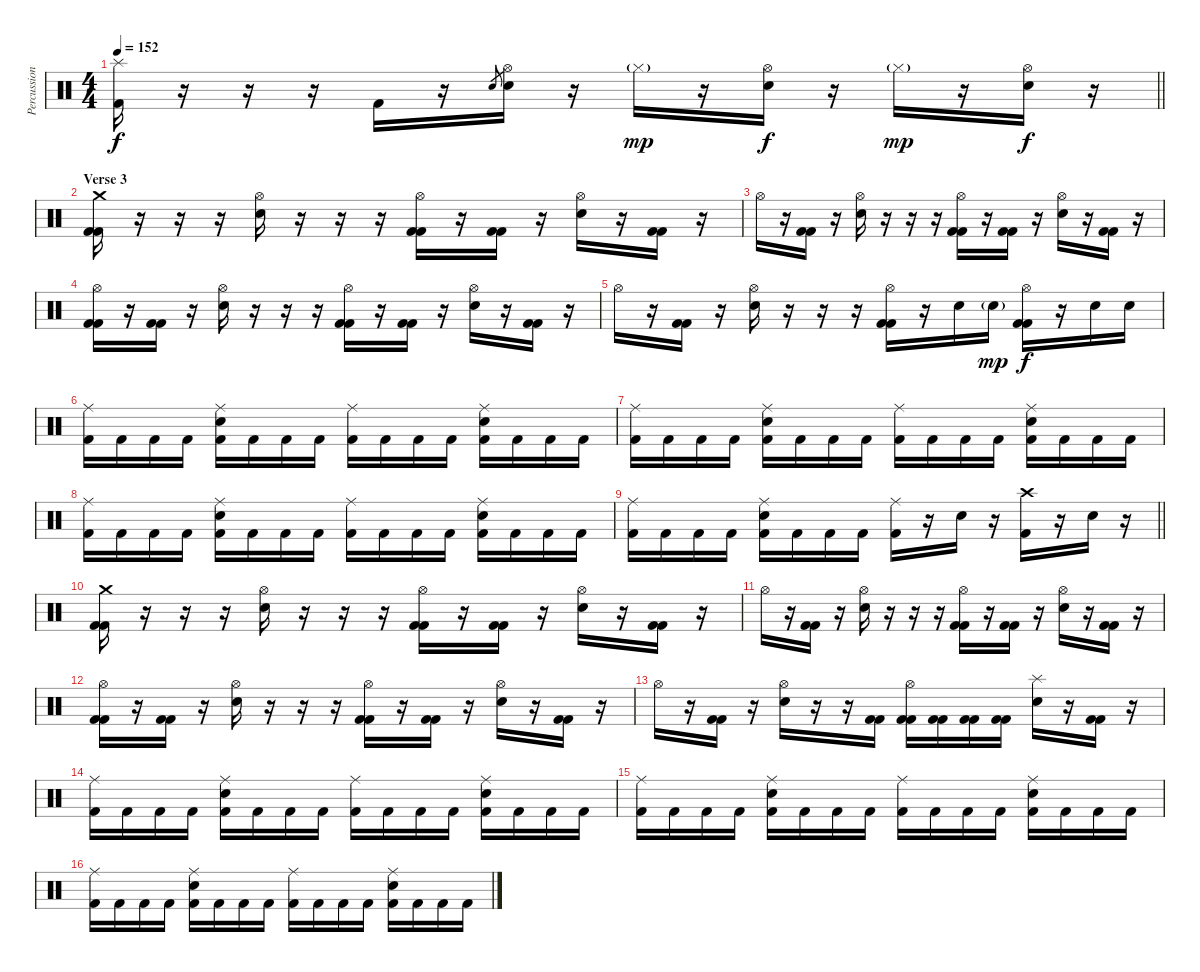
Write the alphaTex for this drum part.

\track ("Percussion" "Percussion") {instrument percussion}
\staff {score}
\articulation defaults
\ts (4 4)
\tempo 152
\clef neutral
\barLineRight lightlight
\ks c
("Splash (hit)" "Kick (hit) 2").16{dy f} r.16 r.16 r.16 "Kick (hit) 2".16 r.16 "Snare (hit) 2".8{gr} ("Hi-Hat (open)" "Snare (hit) 2").16 r.16 "Hi-Hat (closed)"{g}.16{dy mp} r.16 ("Hi-Hat (open)" "Snare (hit) 2").16{dy f} r.16 "Hi-Hat (closed)"{g}.16{dy mp} r.16 ("Hi-Hat (open)" "Snare (hit) 2").16{dy f} r.16 |
\section ("" "Verse 3")
("Crash medium (hit)" "Kick (hit) 2" "Kick (hit) 2").16 r.16 r.16 r.16 ("Hi-Hat (open)" "Snare (hit) 2").16 r.16 r.16 r.16 ("Hi-Hat (open)" "Kick (hit) 2" "Kick (hit) 2").16 r.16 ("Kick (hit) 2" "Kick (hit) 2").16 r.16 ("Hi-Hat (open)" "Snare (hit) 2").16 r.16 ("Kick (hit) 2" "Kick (hit) 2").16 r.16 |
"Hi-Hat (open)".16 r.16 ("Kick (hit) 2" "Kick (hit) 2").16 r.16 ("Hi-Hat (open)" "Snare (hit) 2").16 r.16 r.16 r.16 ("Hi-Hat (open)" "Kick (hit) 2" "Kick (hit) 2").16 r.16 ("Kick (hit) 2" "Kick (hit) 2").16 r.16 ("Hi-Hat (open)" "Snare (hit) 2").16 r.16 ("Kick (hit) 2" "Kick (hit) 2").16 r.16 |
("Hi-Hat (open)" "Kick (hit) 2" "Kick (hit) 2").16 r.16 ("Kick (hit) 2" "Kick (hit) 2").16 r.16 ("Hi-Hat (open)" "Snare (hit) 2").16 r.16 r.16 r.16 ("Hi-Hat (open)" "Kick (hit) 2" "Kick (hit) 2").16 r.16 ("Kick (hit) 2" "Kick (hit) 2").16 r.16 ("Hi-Hat (open)" "Snare (hit) 2").16 r.16 ("Kick (hit) 2" "Kick (hit) 2").16 r.16 |
"Hi-Hat (open)".16 r.16 ("Kick (hit) 2" "Kick (hit) 2").16 r.16 ("Hi-Hat (open)" "Snare (hit) 2").16 r.16 r.16 r.16 ("Hi-Hat (open)" "Kick (hit) 2" "Kick (hit) 2").16 r.16 "Snare (hit) 2".16 "Snare (hit) 2"{g}.16{dy mp} ("Hi-Hat (open)" "Kick (hit) 2" "Kick (hit) 2").16{dy f} r.16 "Snare (hit) 2".16 "Snare (hit) 2".16 |
("Ride (middle)" "Kick (hit) 2").16 "Kick (hit) 2".16 "Kick (hit) 2".16 "Kick (hit) 2".16 ("Ride (middle)" "Snare (hit) 2" "Kick (hit) 2").16 "Kick (hit) 2".16 "Kick (hit) 2".16 "Kick (hit) 2".16 ("Ride (middle)" "Kick (hit) 2").16 "Kick (hit) 2".16 "Kick (hit) 2".16 "Kick (hit) 2".16 ("Ride (middle)" "Snare (hit) 2" "Kick (hit) 2").16 "Kick (hit) 2".16 "Kick (hit) 2".16 "Kick (hit) 2".16 |
("Ride (middle)" "Kick (hit) 2").16 "Kick (hit) 2".16 "Kick (hit) 2".16 "Kick (hit) 2".16 ("Ride (middle)" "Snare (hit) 2" "Kick (hit) 2").16 "Kick (hit) 2".16 "Kick (hit) 2".16 "Kick (hit) 2".16 ("Ride (middle)" "Kick (hit) 2").16 "Kick (hit) 2".16 "Kick (hit) 2".16 "Kick (hit) 2".16 ("Ride (middle)" "Snare (hit) 2" "Kick (hit) 2").16 "Kick (hit) 2".16 "Kick (hit) 2".16 "Kick (hit) 2".16 |
("Ride (middle)" "Kick (hit) 2").16 "Kick (hit) 2".16 "Kick (hit) 2".16 "Kick (hit) 2".16 ("Ride (middle)" "Snare (hit) 2" "Kick (hit) 2").16 "Kick (hit) 2".16 "Kick (hit) 2".16 "Kick (hit) 2".16 ("Ride (middle)" "Kick (hit) 2").16 "Kick (hit) 2".16 "Kick (hit) 2".16 "Kick (hit) 2".16 ("Ride (middle)" "Snare (hit) 2" "Kick (hit) 2").16 "Kick (hit) 2".16 "Kick (hit) 2".16 "Kick (hit) 2".16 |
\barLineRight lightlight
("Ride (middle)" "Kick (hit) 2").16 "Kick (hit) 2".16 "Kick (hit) 2".16 "Kick (hit) 2".16 ("Ride (middle)" "Snare (hit) 2" "Kick (hit) 2").16 "Kick (hit) 2".16 "Kick (hit) 2".16 "Kick (hit) 2".16 ("Ride (middle)" "Kick (hit) 2").16 r.16 "Snare (hit) 2".16 r.16 ("Crash high (hit)" "Kick (hit) 2").16 r.16 "Snare (hit) 2".16 r.16 |
("Crash medium (hit)" "Kick (hit) 2" "Kick (hit) 2").16 r.16 r.16 r.16 ("Hi-Hat (open)" "Snare (hit) 2").16 r.16 r.16 r.16 ("Hi-Hat (open)" "Kick (hit) 2" "Kick (hit) 2").16 r.16 ("Kick (hit) 2" "Kick (hit) 2").16 r.16 ("Hi-Hat (open)" "Snare (hit) 2").16 r.16 ("Kick (hit) 2" "Kick (hit) 2").16 r.16 |
"Hi-Hat (open)".16 r.16 ("Kick (hit) 2" "Kick (hit) 2").16 r.16 ("Hi-Hat (open)" "Snare (hit) 2").16 r.16 r.16 r.16 ("Hi-Hat (open)" "Kick (hit) 2" "Kick (hit) 2").16 r.16 ("Kick (hit) 2" "Kick (hit) 2").16 r.16 ("Hi-Hat (open)" "Snare (hit) 2").16 r.16 ("Kick (hit) 2" "Kick (hit) 2").16 r.16 |
("Hi-Hat (open)" "Kick (hit) 2" "Kick (hit) 2").16 r.16 ("Kick (hit) 2" "Kick (hit) 2").16 r.16 ("Hi-Hat (open)" "Snare (hit) 2").16 r.16 r.16 r.16 ("Hi-Hat (open)" "Kick (hit) 2" "Kick (hit) 2").16 r.16 ("Kick (hit) 2" "Kick (hit) 2").16 r.16 ("Hi-Hat (open)" "Snare (hit) 2").16 r.16 ("Kick (hit) 2" "Kick (hit) 2").16 r.16 |
"Hi-Hat (open)".16 r.16 ("Kick (hit) 2" "Kick (hit) 2").16 r.16 ("Hi-Hat (open)" "Snare (hit) 2").16 r.16 r.16 ("Kick (hit) 2" "Kick (hit) 2").16 ("Hi-Hat (open)" "Kick (hit) 2" "Kick (hit) 2").16 ("Kick (hit) 2" "Kick (hit) 2").16 ("Kick (hit) 2" "Kick (hit) 2").16 ("Kick (hit) 2" "Kick (hit) 2").16 ("Splash (hit)" "Snare (hit) 2").16 r.16 ("Kick (hit) 2" "Kick (hit) 2").16 r.16 |
("Ride (middle)" "Kick (hit) 2").16 "Kick (hit) 2".16 "Kick (hit) 2".16 "Kick (hit) 2".16 ("Ride (middle)" "Snare (hit) 2" "Kick (hit) 2").16 "Kick (hit) 2".16 "Kick (hit) 2".16 "Kick (hit) 2".16 ("Ride (middle)" "Kick (hit) 2").16 "Kick (hit) 2".16 "Kick (hit) 2".16 "Kick (hit) 2".16 ("Ride (middle)" "Snare (hit) 2" "Kick (hit) 2").16 "Kick (hit) 2".16 "Kick (hit) 2".16 "Kick (hit) 2".16 |
("Ride (middle)" "Kick (hit) 2").16 "Kick (hit) 2".16 "Kick (hit) 2".16 "Kick (hit) 2".16 ("Ride (middle)" "Snare (hit) 2" "Kick (hit) 2").16 "Kick (hit) 2".16 "Kick (hit) 2".16 "Kick (hit) 2".16 ("Ride (middle)" "Kick (hit) 2").16 "Kick (hit) 2".16 "Kick (hit) 2".16 "Kick (hit) 2".16 ("Ride (middle)" "Snare (hit) 2" "Kick (hit) 2").16 "Kick (hit) 2".16 "Kick (hit) 2".16 "Kick (hit) 2".16 |
("Ride (middle)" "Kick (hit) 2").16 "Kick (hit) 2".16 "Kick (hit) 2".16 "Kick (hit) 2".16 ("Ride (middle)" "Snare (hit) 2" "Kick (hit) 2").16 "Kick (hit) 2".16 "Kick (hit) 2".16 "Kick (hit) 2".16 ("Ride (middle)" "Kick (hit) 2").16 "Kick (hit) 2".16 "Kick (hit) 2".16 "Kick (hit) 2".16 ("Ride (middle)" "Snare (hit) 2" "Kick (hit) 2").16 "Kick (hit) 2".16 "Kick (hit) 2".16 "Kick (hit) 2".16
